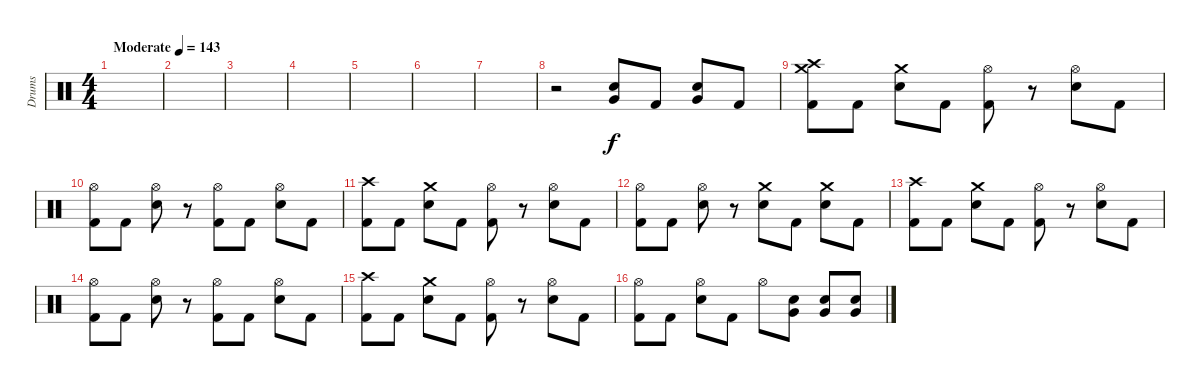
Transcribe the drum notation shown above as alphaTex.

\track ("Drums" "Drums") {instrument percussion}
\staff {score}
\articulation defaults
\ts (4 4)
\tempo (143 "Moderate")
\clef neutral
\ks c
|
|
|
|
|
|
|
r.2 ("Very Low Tom (hit)" "Electric Snare (hit)").8 "Kick (hit) 2".8 ("Very Low Tom (hit)" "Electric Snare (hit)").8 "Kick (hit) 2".8 |
("Crash high (hit)" "Crash medium (hit)" "Kick (hit) 2").8 "Kick (hit) 2".8 ("Crash medium (hit)" "Electric Snare (hit)").8 "Kick (hit) 2".8 ("Hi-Hat (open)" "Kick (hit) 2").8 r.8 ("Hi-Hat (open)" "Electric Snare (hit)").8 "Kick (hit) 2".8 |
("Hi-Hat (open)" "Kick (hit) 2").8 "Kick (hit) 2".8 ("Hi-Hat (open)" "Electric Snare (hit)").8 r.8 ("Hi-Hat (open)" "Kick (hit) 2").8 "Kick (hit) 2".8 ("Hi-Hat (open)" "Electric Snare (hit)").8 "Kick (hit) 2".8 |
("Crash high (hit)" "Kick (hit) 2").8 "Kick (hit) 2".8 ("Crash medium (hit)" "Electric Snare (hit)").8 "Kick (hit) 2".8 ("Hi-Hat (open)" "Kick (hit) 2").8 r.8 ("Hi-Hat (open)" "Electric Snare (hit)").8 "Kick (hit) 2".8 |
("Hi-Hat (open)" "Kick (hit) 2").8 "Kick (hit) 2".8 ("Hi-Hat (open)" "Electric Snare (hit)").8 r.8 ("Crash medium (hit)" "Electric Snare (hit)").8 "Kick (hit) 2".8 ("Crash medium (hit)" "Electric Snare (hit)").8 "Kick (hit) 2".8 |
("Crash high (hit)" "Kick (hit) 2").8 "Kick (hit) 2".8 ("Crash medium (hit)" "Electric Snare (hit)").8 "Kick (hit) 2".8 ("Hi-Hat (open)" "Kick (hit) 2").8 r.8 ("Hi-Hat (open)" "Electric Snare (hit)").8 "Kick (hit) 2".8 |
("Hi-Hat (open)" "Kick (hit) 2").8 "Kick (hit) 2".8 ("Hi-Hat (open)" "Electric Snare (hit)").8 r.8 ("Hi-Hat (open)" "Kick (hit) 2").8 "Kick (hit) 2".8 ("Hi-Hat (open)" "Electric Snare (hit)").8 "Kick (hit) 2".8 |
("Crash high (hit)" "Kick (hit) 2").8 "Kick (hit) 2".8 ("Crash medium (hit)" "Electric Snare (hit)").8 "Kick (hit) 2".8 ("Hi-Hat (open)" "Kick (hit) 2").8 r.8 ("Hi-Hat (open)" "Electric Snare (hit)").8 "Kick (hit) 2".8 |
("Hi-Hat (open)" "Kick (hit) 2").8 "Kick (hit) 2".8 ("Hi-Hat (open)" "Electric Snare (hit)").8 "Kick (hit) 2".8 "Hi-Hat (open)".8 ("Very Low Tom (hit)" "Electric Snare (hit)").8 ("Very Low Tom (hit)" "Electric Snare (hit)").8 ("Very Low Tom (hit)" "Electric Snare (hit)").8
